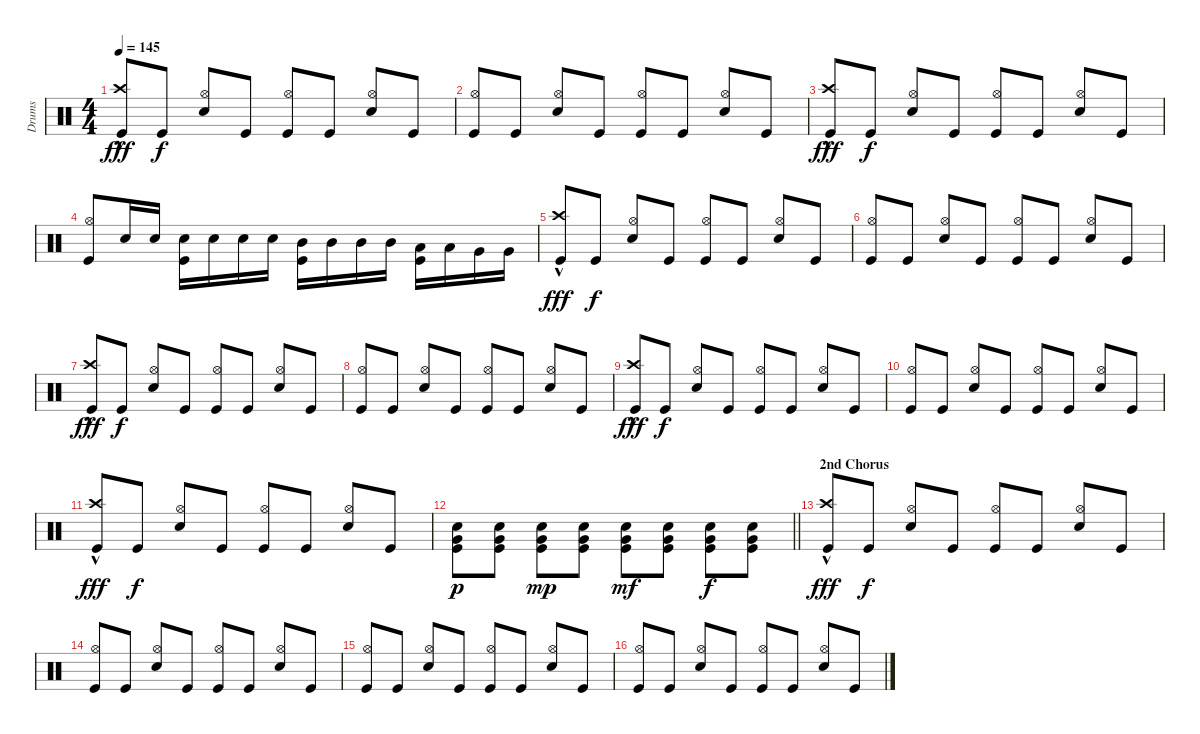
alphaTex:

\track ("Drums" "Drums") {instrument percussion}
\staff {score}
\articulation defaults
\ts (4 4)
\tempo 145
\clef neutral
\ks c
("Crash high (hit)"{hac} "Kick (hit)").8{dy fff beam Up} "Kick (hit)".8{dy f beam Up} ("Hi-Hat (open)" "Snare (hit) 2").8{beam Up} "Kick (hit)".8{beam Up} ("Hi-Hat (open)" "Kick (hit)").8{beam Up} "Kick (hit)".8{beam Up} ("Hi-Hat (open)" "Snare (hit) 2").8{beam Up} "Kick (hit)".8{beam Up} |
("Hi-Hat (open)" "Kick (hit)").8{beam Up} "Kick (hit)".8{beam Up} ("Hi-Hat (open)" "Snare (hit) 2").8{beam Up} "Kick (hit)".8{beam Up} ("Hi-Hat (open)" "Kick (hit)").8{beam Up} "Kick (hit)".8{beam Up} ("Hi-Hat (open)" "Snare (hit) 2").8{beam Up} "Kick (hit)".8{beam Up} |
("Crash high (hit)"{hac} "Kick (hit)").8{dy fff beam Up} "Kick (hit)".8{dy f beam Up} ("Hi-Hat (open)" "Snare (hit) 2").8{beam Up} "Kick (hit)".8{beam Up} ("Hi-Hat (open)" "Kick (hit)").8{beam Up} "Kick (hit)".8{beam Up} ("Hi-Hat (open)" "Snare (hit) 2").8{beam Up} "Kick (hit)".8{beam Up} |
("Hi-Hat (open)" "Kick (hit)").8{beam Up} "Snare (hit) 2".16{beam Up} "Snare (hit) 2".16{beam Up} ("Snare (hit) 2" "Kick (hit)").16{beam Down} "Snare (hit) 2".16{beam Down} "Snare (hit) 2".16{beam Down} "Snare (hit) 2".16{beam Down} ("Mid Tom (hit)" "Kick (hit)").16{beam Down} "Mid Tom (hit)".16{beam Down} "Mid Tom (hit)".16{beam Down} "Mid Tom (hit)".16{beam Down} ("Low Tom (hit)" "Kick (hit)").16{beam Down} "Low Tom (hit)".16{beam Down} "Very Low Tom (hit)".16{beam Down} "Very Low Tom (hit)".16{beam Down} |
("Crash high (hit)"{hac} "Kick (hit)").8{dy fff beam Up} "Kick (hit)".8{dy f beam Up} ("Hi-Hat (open)" "Snare (hit) 2").8{beam Up} "Kick (hit)".8{beam Up} ("Hi-Hat (open)" "Kick (hit)").8{beam Up} "Kick (hit)".8{beam Up} ("Hi-Hat (open)" "Snare (hit) 2").8{beam Up} "Kick (hit)".8{beam Up} |
("Hi-Hat (open)" "Kick (hit)").8{beam Up} "Kick (hit)".8{beam Up} ("Hi-Hat (open)" "Snare (hit) 2").8{beam Up} "Kick (hit)".8{beam Up} ("Hi-Hat (open)" "Kick (hit)").8{beam Up} "Kick (hit)".8{beam Up} ("Hi-Hat (open)" "Snare (hit) 2").8{beam Up} "Kick (hit)".8{beam Up} |
("Crash high (hit)"{hac} "Kick (hit)").8{dy fff beam Up} "Kick (hit)".8{dy f beam Up} ("Hi-Hat (open)" "Snare (hit) 2").8{beam Up} "Kick (hit)".8{beam Up} ("Hi-Hat (open)" "Kick (hit)").8{beam Up} "Kick (hit)".8{beam Up} ("Hi-Hat (open)" "Snare (hit) 2").8{beam Up} "Kick (hit)".8{beam Up} |
("Hi-Hat (open)" "Kick (hit)").8{beam Up} "Kick (hit)".8{beam Up} ("Hi-Hat (open)" "Snare (hit) 2").8{beam Up} "Kick (hit)".8{beam Up} ("Hi-Hat (open)" "Kick (hit)").8{beam Up} "Kick (hit)".8{beam Up} ("Hi-Hat (open)" "Snare (hit) 2").8{beam Up} "Kick (hit)".8{beam Up} |
("Crash high (hit)"{hac} "Kick (hit)").8{dy fff beam Up} "Kick (hit)".8{dy f beam Up} ("Hi-Hat (open)" "Snare (hit) 2").8{beam Up} "Kick (hit)".8{beam Up} ("Hi-Hat (open)" "Kick (hit)").8{beam Up} "Kick (hit)".8{beam Up} ("Hi-Hat (open)" "Snare (hit) 2").8{beam Up} "Kick (hit)".8{beam Up} |
("Hi-Hat (open)" "Kick (hit)").8{beam Up} "Kick (hit)".8{beam Up} ("Hi-Hat (open)" "Snare (hit) 2").8{beam Up} "Kick (hit)".8{beam Up} ("Hi-Hat (open)" "Kick (hit)").8{beam Up} "Kick (hit)".8{beam Up} ("Hi-Hat (open)" "Snare (hit) 2").8{beam Up} "Kick (hit)".8{beam Up} |
("Crash high (hit)"{hac} "Kick (hit)").8{dy fff beam Up} "Kick (hit)".8{dy f beam Up} ("Hi-Hat (open)" "Snare (hit) 2").8{beam Up} "Kick (hit)".8{beam Up} ("Hi-Hat (open)" "Kick (hit)").8{beam Up} "Kick (hit)".8{beam Up} ("Hi-Hat (open)" "Snare (hit) 2").8{beam Up} "Kick (hit)".8{beam Up} |
\barLineRight lightlight
("Snare (hit) 2" "Very Low Tom (hit)" "Kick (hit)").8{dy p beam Down} ("Snare (hit) 2" "Very Low Tom (hit)" "Kick (hit)").8{beam Down} ("Snare (hit) 2" "Very Low Tom (hit)" "Kick (hit)").8{dy mp beam Down} ("Snare (hit) 2" "Very Low Tom (hit)" "Kick (hit)").8{beam Down} ("Snare (hit) 2" "Very Low Tom (hit)" "Kick (hit)").8{dy mf beam Down} ("Snare (hit) 2" "Very Low Tom (hit)" "Kick (hit)").8{beam Down} ("Snare (hit) 2" "Very Low Tom (hit)" "Kick (hit)").8{dy f beam Down} ("Snare (hit) 2" "Very Low Tom (hit)" "Kick (hit)").8{beam Down} |
\section ("" "2nd Chorus")
("Crash high (hit)"{hac} "Kick (hit)").8{dy fff beam Up} "Kick (hit)".8{dy f beam Up} ("Hi-Hat (open)" "Snare (hit) 2").8{beam Up} "Kick (hit)".8{beam Up} ("Hi-Hat (open)" "Kick (hit)").8{beam Up} "Kick (hit)".8{beam Up} ("Hi-Hat (open)" "Snare (hit) 2").8{beam Up} "Kick (hit)".8{beam Up} |
("Hi-Hat (open)" "Kick (hit)").8{beam Up} "Kick (hit)".8{beam Up} ("Hi-Hat (open)" "Snare (hit) 2").8{beam Up} "Kick (hit)".8{beam Up} ("Hi-Hat (open)" "Kick (hit)").8{beam Up} "Kick (hit)".8{beam Up} ("Hi-Hat (open)" "Snare (hit) 2").8{beam Up} "Kick (hit)".8{beam Up} |
("Hi-Hat (open)" "Kick (hit)").8{beam Up} "Kick (hit)".8{beam Up} ("Hi-Hat (open)" "Snare (hit) 2").8{beam Up} "Kick (hit)".8{beam Up} ("Hi-Hat (open)" "Kick (hit)").8{beam Up} "Kick (hit)".8{beam Up} ("Hi-Hat (open)" "Snare (hit) 2").8{beam Up} "Kick (hit)".8{beam Up} |
("Hi-Hat (open)" "Kick (hit)").8{beam Up} "Kick (hit)".8{beam Up} ("Hi-Hat (open)" "Snare (hit) 2").8{beam Up} "Kick (hit)".8{beam Up} ("Hi-Hat (open)" "Kick (hit)").8{beam Up} "Kick (hit)".8{beam Up} ("Hi-Hat (open)" "Snare (hit) 2").8{beam Up} "Kick (hit)".8{beam Up}
